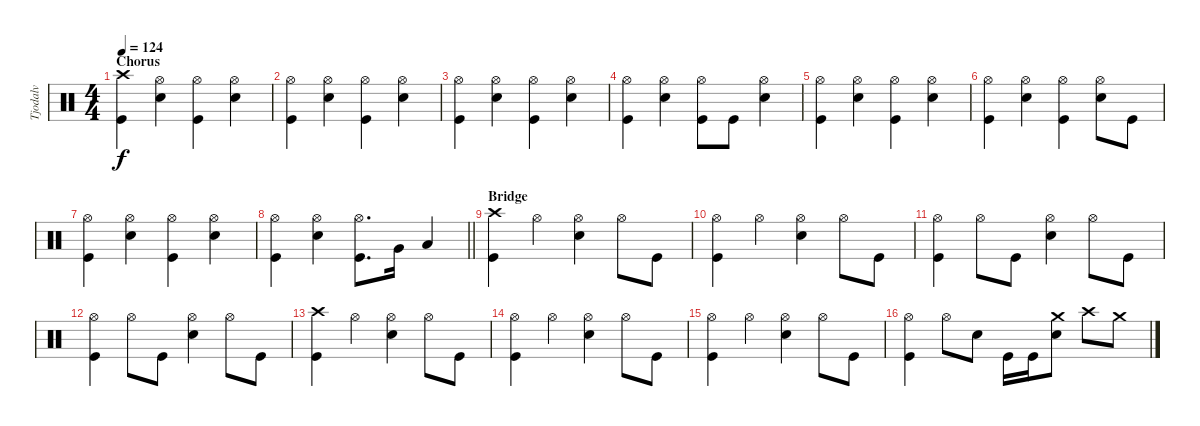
\track ("Tjodalv" "Tjodalv") {instrument percussion}
\staff {score}
\articulation defaults
\ts (4 4)
\section ("" "Chorus")
\tempo 124
\clef neutral
\ks c
("Crash high (hit)" "Kick (hit)").4{dy f} ("Snare (hit) 2" "Hi-Hat (open)").4 ("Kick (hit)" "Hi-Hat (open)").4 ("Snare (hit) 2" "Hi-Hat (open)").4 |
("Kick (hit)" "Hi-Hat (open)").4 ("Snare (hit) 2" "Hi-Hat (open)").4 ("Kick (hit)" "Hi-Hat (open)").4 ("Snare (hit) 2" "Hi-Hat (open)").4 |
("Kick (hit)" "Hi-Hat (open)").4 ("Snare (hit) 2" "Hi-Hat (open)").4 ("Kick (hit)" "Hi-Hat (open)").4 ("Snare (hit) 2" "Hi-Hat (open)").4 |
("Kick (hit)" "Hi-Hat (open)").4 ("Snare (hit) 2" "Hi-Hat (open)").4 ("Kick (hit)" "Hi-Hat (open)").8 "Kick (hit)".8 ("Snare (hit) 2" "Hi-Hat (open)").4 |
("Kick (hit)" "Hi-Hat (open)").4 ("Snare (hit) 2" "Hi-Hat (open)").4 ("Kick (hit)" "Hi-Hat (open)").4 ("Snare (hit) 2" "Hi-Hat (open)").4 |
("Kick (hit)" "Hi-Hat (open)").4 ("Snare (hit) 2" "Hi-Hat (open)").4 ("Kick (hit)" "Hi-Hat (open)").4 ("Snare (hit) 2" "Hi-Hat (open)").8 "Kick (hit)".8 |
("Kick (hit)" "Hi-Hat (open)").4 ("Snare (hit) 2" "Hi-Hat (open)").4 ("Kick (hit)" "Hi-Hat (open)").4 ("Snare (hit) 2" "Hi-Hat (open)").4 |
\barLineRight lightlight
("Kick (hit)" "Hi-Hat (open)").4 ("Snare (hit) 2" "Hi-Hat (open)").4 ("Kick (hit)" "Hi-Hat (open)").8{d} "Very Low Tom (hit)".16 "Low Floor Tom (hit)".4 |
\section ("" "Bridge")
("Crash high (hit)" "Kick (hit)").4 "Hi-Hat (open)".4 ("Hi-Hat (open)" "Snare (hit) 2").4 "Hi-Hat (open)".8 "Kick (hit)".8 |
("Kick (hit)" "Hi-Hat (open)").4 "Hi-Hat (open)".4 ("Hi-Hat (open)" "Snare (hit) 2").4 "Hi-Hat (open)".8 "Kick (hit)".8 |
("Kick (hit)" "Hi-Hat (open)").4 "Hi-Hat (open)".8 "Kick (hit)".8 ("Hi-Hat (open)" "Snare (hit) 2").4 "Hi-Hat (open)".8 "Kick (hit)".8 |
("Kick (hit)" "Hi-Hat (open)").4 "Hi-Hat (open)".8 "Kick (hit)".8 ("Hi-Hat (open)" "Snare (hit) 2").4 "Hi-Hat (open)".8 "Kick (hit)".8 |
("Crash high (hit)" "Kick (hit)").4 "Hi-Hat (open)".4 ("Hi-Hat (open)" "Snare (hit) 2").4 "Hi-Hat (open)".8 "Kick (hit)".8 |
("Kick (hit)" "Hi-Hat (open)").4 "Hi-Hat (open)".4 ("Hi-Hat (open)" "Snare (hit) 2").4 "Hi-Hat (open)".8 "Kick (hit)".8 |
("Kick (hit)" "Hi-Hat (open)").4 "Hi-Hat (open)".4 ("Hi-Hat (open)" "Snare (hit) 2").4 "Hi-Hat (open)".8 "Kick (hit)".8 |
("Kick (hit)" "Hi-Hat (open)").4 "Hi-Hat (open)".8 "Snare (hit) 2".8 "Kick (hit)".16 "Kick (hit)".16 ("Crash medium (hit)" "Snare (hit) 2").8 "Crash high (hit)".8 "Crash medium (hit)".8
